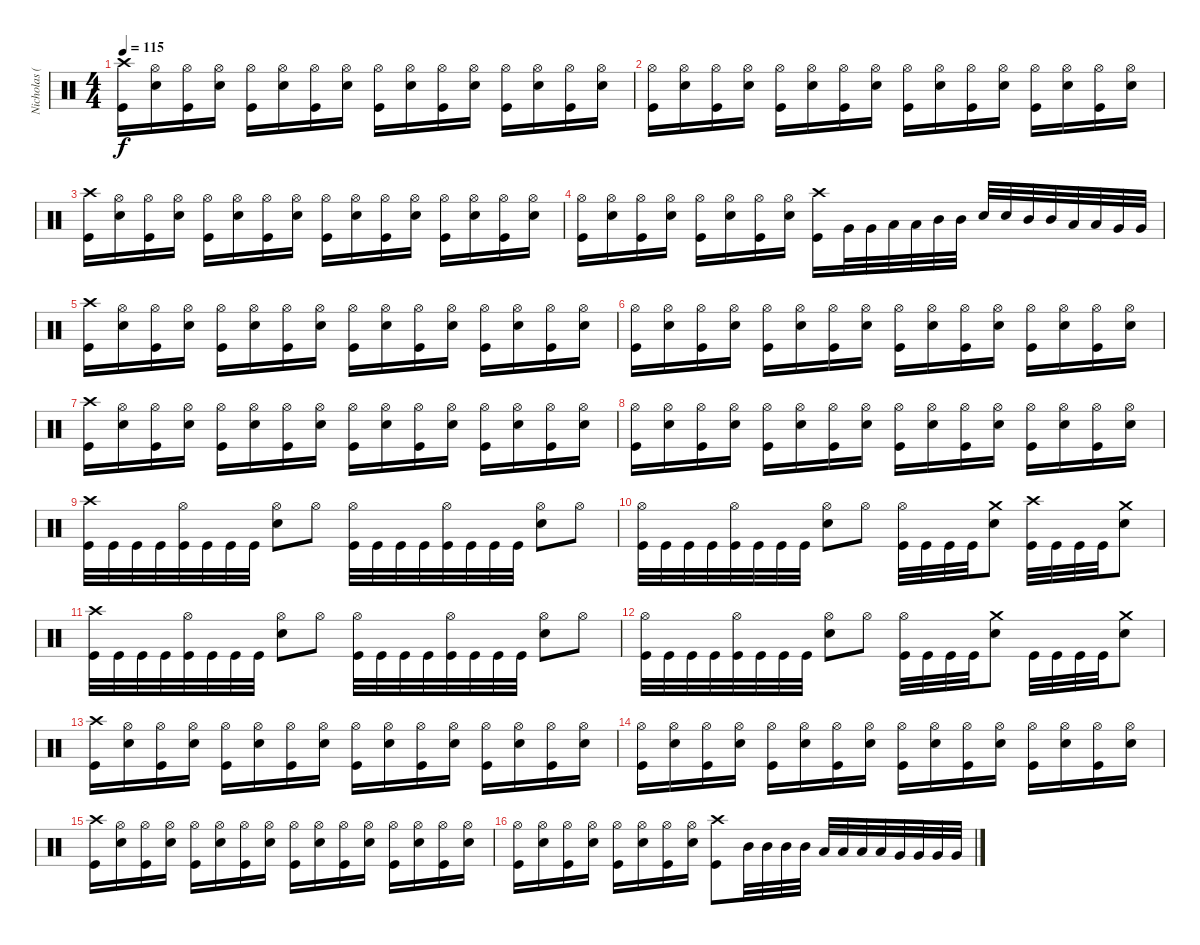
\track ("Nicholas (Drums)" "Nicholas (") {instrument percussion}
\staff {score}
\articulation defaults
\ts (4 4)
\tempo 115
\clef neutral
\ks c
("Crash high (hit)" "Kick (hit)").16{dy f} ("Hi-Hat (open)" "Electric Snare (hit)").16 ("Hi-Hat (open)" "Kick (hit)").16 ("Hi-Hat (open)" "Electric Snare (hit)").16 ("Hi-Hat (open)" "Kick (hit)").16 ("Hi-Hat (open)" "Electric Snare (hit)").16 ("Hi-Hat (open)" "Kick (hit)").16 ("Hi-Hat (open)" "Electric Snare (hit)").16 ("Hi-Hat (open)" "Kick (hit)").16 ("Hi-Hat (open)" "Electric Snare (hit)").16 ("Hi-Hat (open)" "Kick (hit)").16 ("Hi-Hat (open)" "Electric Snare (hit)").16 ("Hi-Hat (open)" "Kick (hit)").16 ("Hi-Hat (open)" "Electric Snare (hit)").16 ("Hi-Hat (open)" "Kick (hit)").16 ("Hi-Hat (open)" "Electric Snare (hit)").16 |
("Hi-Hat (open)" "Kick (hit)").16 ("Hi-Hat (open)" "Electric Snare (hit)").16 ("Hi-Hat (open)" "Kick (hit)").16 ("Hi-Hat (open)" "Electric Snare (hit)").16 ("Hi-Hat (open)" "Kick (hit)").16 ("Hi-Hat (open)" "Electric Snare (hit)").16 ("Hi-Hat (open)" "Kick (hit)").16 ("Hi-Hat (open)" "Electric Snare (hit)").16 ("Hi-Hat (open)" "Kick (hit)").16 ("Hi-Hat (open)" "Electric Snare (hit)").16 ("Hi-Hat (open)" "Kick (hit)").16 ("Hi-Hat (open)" "Electric Snare (hit)").16 ("Hi-Hat (open)" "Kick (hit)").16 ("Hi-Hat (open)" "Electric Snare (hit)").16 ("Hi-Hat (open)" "Kick (hit)").16 ("Hi-Hat (open)" "Electric Snare (hit)").16 |
("Crash high (hit)" "Kick (hit)").16 ("Hi-Hat (open)" "Electric Snare (hit)").16 ("Hi-Hat (open)" "Kick (hit)").16 ("Hi-Hat (open)" "Electric Snare (hit)").16 ("Hi-Hat (open)" "Kick (hit)").16 ("Hi-Hat (open)" "Electric Snare (hit)").16 ("Hi-Hat (open)" "Kick (hit)").16 ("Hi-Hat (open)" "Electric Snare (hit)").16 ("Hi-Hat (open)" "Kick (hit)").16 ("Hi-Hat (open)" "Electric Snare (hit)").16 ("Hi-Hat (open)" "Kick (hit)").16 ("Hi-Hat (open)" "Electric Snare (hit)").16 ("Hi-Hat (open)" "Kick (hit)").16 ("Hi-Hat (open)" "Electric Snare (hit)").16 ("Hi-Hat (open)" "Kick (hit)").16 ("Hi-Hat (open)" "Electric Snare (hit)").16 |
("Hi-Hat (open)" "Kick (hit)").16 ("Hi-Hat (open)" "Electric Snare (hit)").16 ("Hi-Hat (open)" "Kick (hit)").16 ("Hi-Hat (open)" "Electric Snare (hit)").16 ("Hi-Hat (open)" "Kick (hit)").16 ("Hi-Hat (open)" "Electric Snare (hit)").16 ("Hi-Hat (open)" "Kick (hit)").16 ("Hi-Hat (open)" "Electric Snare (hit)").16 ("Crash high (hit)" "Kick (hit)").16 "Very Low Tom (hit)".32 "Very Low Tom (hit)".32 "Low Tom (hit)".32 "Low Tom (hit)".32 "Mid Tom (hit)".32 "Mid Tom (hit)".32 "Electric Snare (hit)".32 "Electric Snare (hit)".32 "Mid Tom (hit)".32 "Mid Tom (hit)".32 "Low Tom (hit)".32 "Low Tom (hit)".32 "Very Low Tom (hit)".32 "Very Low Tom (hit)".32 |
("Crash high (hit)" "Kick (hit)").16 ("Hi-Hat (open)" "Electric Snare (hit)").16 ("Hi-Hat (open)" "Kick (hit)").16 ("Hi-Hat (open)" "Electric Snare (hit)").16 ("Hi-Hat (open)" "Kick (hit)").16 ("Hi-Hat (open)" "Electric Snare (hit)").16 ("Hi-Hat (open)" "Kick (hit)").16 ("Hi-Hat (open)" "Electric Snare (hit)").16 ("Hi-Hat (open)" "Kick (hit)").16 ("Hi-Hat (open)" "Electric Snare (hit)").16 ("Hi-Hat (open)" "Kick (hit)").16 ("Hi-Hat (open)" "Electric Snare (hit)").16 ("Hi-Hat (open)" "Kick (hit)").16 ("Hi-Hat (open)" "Electric Snare (hit)").16 ("Hi-Hat (open)" "Kick (hit)").16 ("Hi-Hat (open)" "Electric Snare (hit)").16 |
("Hi-Hat (open)" "Kick (hit)").16 ("Hi-Hat (open)" "Electric Snare (hit)").16 ("Hi-Hat (open)" "Kick (hit)").16 ("Hi-Hat (open)" "Electric Snare (hit)").16 ("Hi-Hat (open)" "Kick (hit)").16 ("Hi-Hat (open)" "Electric Snare (hit)").16 ("Hi-Hat (open)" "Kick (hit)").16 ("Hi-Hat (open)" "Electric Snare (hit)").16 ("Hi-Hat (open)" "Kick (hit)").16 ("Hi-Hat (open)" "Electric Snare (hit)").16 ("Hi-Hat (open)" "Kick (hit)").16 ("Hi-Hat (open)" "Electric Snare (hit)").16 ("Hi-Hat (open)" "Kick (hit)").16 ("Hi-Hat (open)" "Electric Snare (hit)").16 ("Hi-Hat (open)" "Kick (hit)").16 ("Hi-Hat (open)" "Electric Snare (hit)").16 |
("Crash high (hit)" "Kick (hit)").16 ("Hi-Hat (open)" "Electric Snare (hit)").16 ("Hi-Hat (open)" "Kick (hit)").16 ("Hi-Hat (open)" "Electric Snare (hit)").16 ("Hi-Hat (open)" "Kick (hit)").16 ("Hi-Hat (open)" "Electric Snare (hit)").16 ("Hi-Hat (open)" "Kick (hit)").16 ("Hi-Hat (open)" "Electric Snare (hit)").16 ("Hi-Hat (open)" "Kick (hit)").16 ("Hi-Hat (open)" "Electric Snare (hit)").16 ("Hi-Hat (open)" "Kick (hit)").16 ("Hi-Hat (open)" "Electric Snare (hit)").16 ("Hi-Hat (open)" "Kick (hit)").16 ("Hi-Hat (open)" "Electric Snare (hit)").16 ("Hi-Hat (open)" "Kick (hit)").16 ("Hi-Hat (open)" "Electric Snare (hit)").16 |
("Hi-Hat (open)" "Kick (hit)").16 ("Hi-Hat (open)" "Electric Snare (hit)").16 ("Hi-Hat (open)" "Kick (hit)").16 ("Hi-Hat (open)" "Electric Snare (hit)").16 ("Hi-Hat (open)" "Kick (hit)").16 ("Hi-Hat (open)" "Electric Snare (hit)").16 ("Hi-Hat (open)" "Kick (hit)").16 ("Hi-Hat (open)" "Electric Snare (hit)").16 ("Hi-Hat (open)" "Kick (hit)").16 ("Hi-Hat (open)" "Electric Snare (hit)").16 ("Hi-Hat (open)" "Kick (hit)").16 ("Hi-Hat (open)" "Electric Snare (hit)").16 ("Hi-Hat (open)" "Kick (hit)").16 ("Hi-Hat (open)" "Electric Snare (hit)").16 ("Hi-Hat (open)" "Kick (hit)").16 ("Hi-Hat (open)" "Electric Snare (hit)").16 |
("Crash high (hit)" "Kick (hit)").32 "Kick (hit)".32 "Kick (hit)".32 "Kick (hit)".32 ("Hi-Hat (open)" "Kick (hit)").32 "Kick (hit)".32 "Kick (hit)".32 "Kick (hit)".32 ("Hi-Hat (open)" "Electric Snare (hit)").8 "Hi-Hat (open)".8 ("Hi-Hat (open)" "Kick (hit)").32 "Kick (hit)".32 "Kick (hit)".32 "Kick (hit)".32 ("Hi-Hat (open)" "Kick (hit)").32 "Kick (hit)".32 "Kick (hit)".32 "Kick (hit)".32 ("Hi-Hat (open)" "Electric Snare (hit)").8 "Hi-Hat (open)".8 |
("Hi-Hat (open)" "Kick (hit)").32 "Kick (hit)".32 "Kick (hit)".32 "Kick (hit)".32 ("Hi-Hat (open)" "Kick (hit)").32 "Kick (hit)".32 "Kick (hit)".32 "Kick (hit)".32 ("Hi-Hat (open)" "Electric Snare (hit)").8 "Hi-Hat (open)".8 ("Hi-Hat (open)" "Kick (hit)").32 "Kick (hit)".32 "Kick (hit)".32 "Kick (hit)".32 ("Crash medium (hit)" "Electric Snare (hit)").8 ("Crash high (hit)" "Kick (hit)").32 "Kick (hit)".32 "Kick (hit)".32 "Kick (hit)".32 ("Crash medium (hit)" "Electric Snare (hit)").8 |
("Crash high (hit)" "Kick (hit)").32 "Kick (hit)".32 "Kick (hit)".32 "Kick (hit)".32 ("Hi-Hat (open)" "Kick (hit)").32 "Kick (hit)".32 "Kick (hit)".32 "Kick (hit)".32 ("Hi-Hat (open)" "Electric Snare (hit)").8 "Hi-Hat (open)".8 ("Hi-Hat (open)" "Kick (hit)").32 "Kick (hit)".32 "Kick (hit)".32 "Kick (hit)".32 ("Hi-Hat (open)" "Kick (hit)").32 "Kick (hit)".32 "Kick (hit)".32 "Kick (hit)".32 ("Hi-Hat (open)" "Electric Snare (hit)").8 "Hi-Hat (open)".8 |
("Hi-Hat (open)" "Kick (hit)").32 "Kick (hit)".32 "Kick (hit)".32 "Kick (hit)".32 ("Hi-Hat (open)" "Kick (hit)").32 "Kick (hit)".32 "Kick (hit)".32 "Kick (hit)".32 ("Hi-Hat (open)" "Electric Snare (hit)").8 "Hi-Hat (open)".8 ("Hi-Hat (open)" "Kick (hit)").32 "Kick (hit)".32 "Kick (hit)".32 "Kick (hit)".32 ("Crash medium (hit)" "Electric Snare (hit)").8 "Kick (hit)".32 "Kick (hit)".32 "Kick (hit)".32 "Kick (hit)".32 ("Crash medium (hit)" "Electric Snare (hit)").8 |
("Crash high (hit)" "Kick (hit)").16 ("Hi-Hat (open)" "Electric Snare (hit)").16 ("Hi-Hat (open)" "Kick (hit)").16 ("Hi-Hat (open)" "Electric Snare (hit)").16 ("Hi-Hat (open)" "Kick (hit)").16 ("Hi-Hat (open)" "Electric Snare (hit)").16 ("Hi-Hat (open)" "Kick (hit)").16 ("Hi-Hat (open)" "Electric Snare (hit)").16 ("Hi-Hat (open)" "Kick (hit)").16 ("Hi-Hat (open)" "Electric Snare (hit)").16 ("Hi-Hat (open)" "Kick (hit)").16 ("Hi-Hat (open)" "Electric Snare (hit)").16 ("Hi-Hat (open)" "Kick (hit)").16 ("Hi-Hat (open)" "Electric Snare (hit)").16 ("Hi-Hat (open)" "Kick (hit)").16 ("Hi-Hat (open)" "Electric Snare (hit)").16 |
("Hi-Hat (open)" "Kick (hit)").16 ("Hi-Hat (open)" "Electric Snare (hit)").16 ("Hi-Hat (open)" "Kick (hit)").16 ("Hi-Hat (open)" "Electric Snare (hit)").16 ("Hi-Hat (open)" "Kick (hit)").16 ("Hi-Hat (open)" "Electric Snare (hit)").16 ("Hi-Hat (open)" "Kick (hit)").16 ("Hi-Hat (open)" "Electric Snare (hit)").16 ("Hi-Hat (open)" "Kick (hit)").16 ("Hi-Hat (open)" "Electric Snare (hit)").16 ("Hi-Hat (open)" "Kick (hit)").16 ("Hi-Hat (open)" "Electric Snare (hit)").16 ("Hi-Hat (open)" "Kick (hit)").16 ("Hi-Hat (open)" "Electric Snare (hit)").16 ("Hi-Hat (open)" "Kick (hit)").16 ("Hi-Hat (open)" "Electric Snare (hit)").16 |
("Crash high (hit)" "Kick (hit)").16 ("Hi-Hat (open)" "Electric Snare (hit)").16 ("Hi-Hat (open)" "Kick (hit)").16 ("Hi-Hat (open)" "Electric Snare (hit)").16 ("Hi-Hat (open)" "Kick (hit)").16 ("Hi-Hat (open)" "Electric Snare (hit)").16 ("Hi-Hat (open)" "Kick (hit)").16 ("Hi-Hat (open)" "Electric Snare (hit)").16 ("Hi-Hat (open)" "Kick (hit)").16 ("Hi-Hat (open)" "Electric Snare (hit)").16 ("Hi-Hat (open)" "Kick (hit)").16 ("Hi-Hat (open)" "Electric Snare (hit)").16 ("Hi-Hat (open)" "Kick (hit)").16 ("Hi-Hat (open)" "Electric Snare (hit)").16 ("Hi-Hat (open)" "Kick (hit)").16 ("Hi-Hat (open)" "Electric Snare (hit)").16 |
("Hi-Hat (open)" "Kick (hit)").16 ("Hi-Hat (open)" "Electric Snare (hit)").16 ("Hi-Hat (open)" "Kick (hit)").16 ("Hi-Hat (open)" "Electric Snare (hit)").16 ("Hi-Hat (open)" "Kick (hit)").16 ("Hi-Hat (open)" "Electric Snare (hit)").16 ("Hi-Hat (open)" "Kick (hit)").16 ("Hi-Hat (open)" "Electric Snare (hit)").16 ("Crash high (hit)" "Kick (hit)").8 "Mid Tom (hit)".32 "Mid Tom (hit)".32 "Mid Tom (hit)".32 "Mid Tom (hit)".32 "Low Tom (hit)".32 "Low Tom (hit)".32 "Low Tom (hit)".32 "Low Tom (hit)".32 "Very Low Tom (hit)".32 "Very Low Tom (hit)".32 "Very Low Tom (hit)".32 "Very Low Tom (hit)".32
